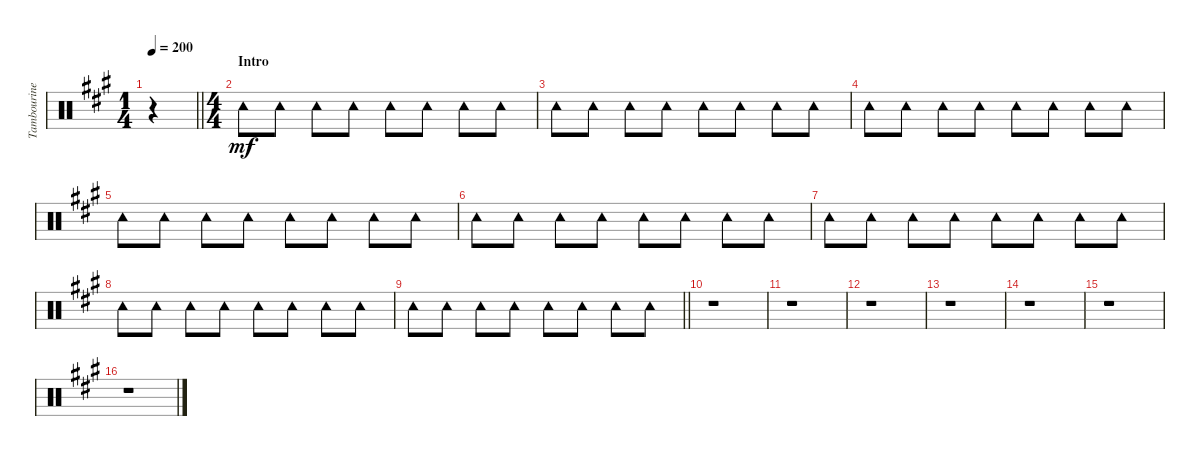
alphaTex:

\track ("Tambourine" "Tambourine") {instrument percussion}
\staff {score}
\articulation defaults
\ts (1 4)
\tempo 200
\clef neutral
\barLineRight lightlight
\ks a
r.4{dy mf} |
\ts (4 4)
\section ("" "Intro")
"Tambourine (hit)".8 "Tambourine (hit)".8 "Tambourine (hit)".8 "Tambourine (hit)".8 "Tambourine (hit)".8 "Tambourine (hit)".8 "Tambourine (hit)".8 "Tambourine (hit)".8 |
"Tambourine (hit)".8 "Tambourine (hit)".8 "Tambourine (hit)".8 "Tambourine (hit)".8 "Tambourine (hit)".8 "Tambourine (hit)".8 "Tambourine (hit)".8 "Tambourine (hit)".8 |
"Tambourine (hit)".8 "Tambourine (hit)".8 "Tambourine (hit)".8 "Tambourine (hit)".8 "Tambourine (hit)".8 "Tambourine (hit)".8 "Tambourine (hit)".8 "Tambourine (hit)".8 |
"Tambourine (hit)".8 "Tambourine (hit)".8 "Tambourine (hit)".8 "Tambourine (hit)".8 "Tambourine (hit)".8 "Tambourine (hit)".8 "Tambourine (hit)".8 "Tambourine (hit)".8 |
"Tambourine (hit)".8 "Tambourine (hit)".8 "Tambourine (hit)".8 "Tambourine (hit)".8 "Tambourine (hit)".8 "Tambourine (hit)".8 "Tambourine (hit)".8 "Tambourine (hit)".8 |
"Tambourine (hit)".8 "Tambourine (hit)".8 "Tambourine (hit)".8 "Tambourine (hit)".8 "Tambourine (hit)".8 "Tambourine (hit)".8 "Tambourine (hit)".8 "Tambourine (hit)".8 |
"Tambourine (hit)".8 "Tambourine (hit)".8 "Tambourine (hit)".8 "Tambourine (hit)".8 "Tambourine (hit)".8 "Tambourine (hit)".8 "Tambourine (hit)".8 "Tambourine (hit)".8 |
\barLineRight lightlight "Tambourine (hit)".8 "Tambourine (hit)".8 "Tambourine (hit)".8 "Tambourine (hit)".8 "Tambourine (hit)".8 "Tambourine (hit)".8 "Tambourine (hit)".8 "Tambourine (hit)".8
|
\section ("" "")
r.1 |
r.1 |
r.1 |
r.1 |
r.1 |
r.1 |
r.1
